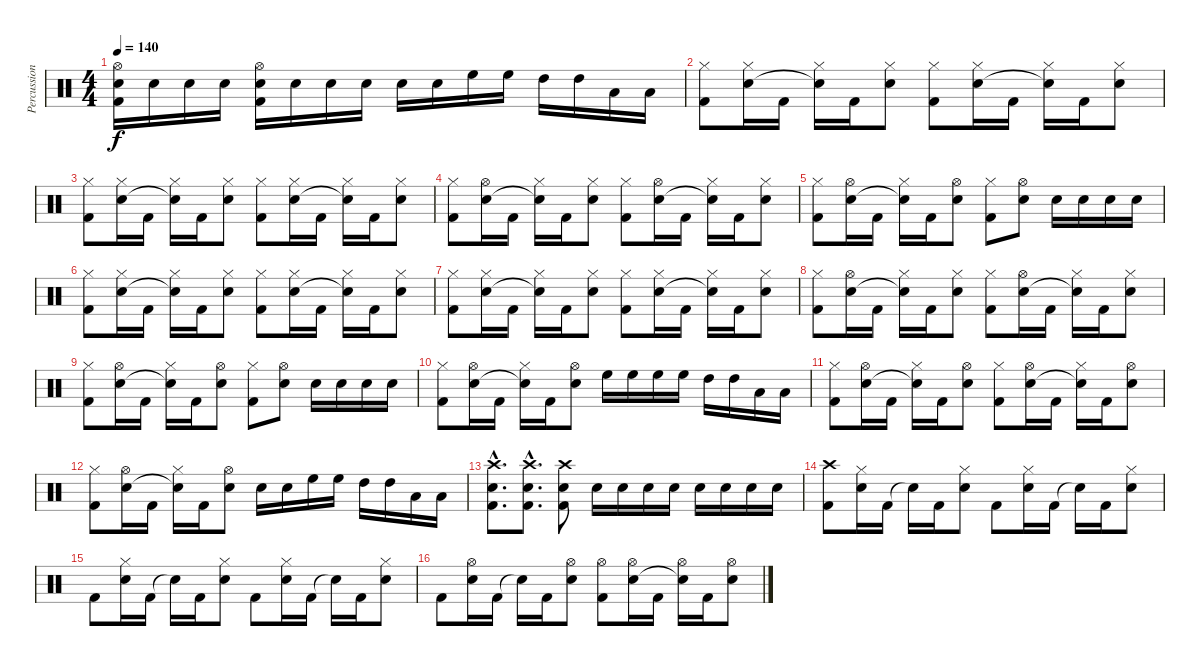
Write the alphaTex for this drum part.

\track ("Percussion" "Percussion") {instrument percussion}
\staff {score}
\articulation defaults
\ts (4 4)
\tempo 140
\clef neutral
\ks c
("Hi-Hat (open)" "Snare (hit) 2" "Kick (hit) 2").16{dy f} "Snare (hit) 2".16 "Snare (hit) 2".16 "Snare (hit) 2".16 ("Hi-Hat (open)" "Snare (hit) 2" "Kick (hit) 2").16 "Snare (hit) 2".16 "Snare (hit) 2".16 "Snare (hit) 2".16 "Snare (hit) 2".16 "Snare (hit) 2".16 "High Floor Tom (hit)".16 "High Floor Tom (hit)".16 "High Tom (hit)".16 "High Tom (hit)".16 "Low Tom (hit)".16 "Low Tom (hit)".16 |
("Hi-Hat (closed)" "Kick (hit) 2").8 ("Hi-Hat (closed)" "Snare (hit) 2").16 "Kick (hit) 2".16 ("Hi-Hat (closed)" "Snare (hit)"{t}).16 "Kick (hit) 2".16 ("Hi-Hat (closed)" "Snare (hit) 2").8 ("Hi-Hat (closed)" "Kick (hit) 2").8 ("Hi-Hat (closed)" "Snare (hit) 2").16 "Kick (hit) 2".16 ("Hi-Hat (closed)" "Snare (hit)"{t}).16 "Kick (hit) 2".16 ("Hi-Hat (closed)" "Snare (hit) 2").8 |
("Hi-Hat (closed)" "Kick (hit) 2").8 ("Hi-Hat (closed)" "Snare (hit) 2").16 "Kick (hit) 2".16 ("Hi-Hat (closed)" "Snare (hit)"{t}).16 "Kick (hit) 2".16 ("Hi-Hat (closed)" "Snare (hit) 2").8 ("Hi-Hat (closed)" "Kick (hit) 2").8 ("Hi-Hat (closed)" "Snare (hit) 2").16 "Kick (hit) 2".16 ("Hi-Hat (closed)" "Snare (hit)"{t}).16 "Kick (hit) 2".16 ("Hi-Hat (closed)" "Snare (hit) 2").8 |
("Hi-Hat (closed)" "Kick (hit) 2").8 ("Hi-Hat (open)" "Snare (hit) 2").16 "Kick (hit) 2".16 ("Hi-Hat (closed)" "Snare (hit)"{t}).16 "Kick (hit) 2".16 ("Hi-Hat (closed)" "Snare (hit) 2").8 ("Hi-Hat (closed)" "Kick (hit) 2").8 ("Hi-Hat (open)" "Snare (hit) 2").16 "Kick (hit) 2".16 ("Hi-Hat (closed)" "Snare (hit)"{t}).16 "Kick (hit) 2".16 ("Hi-Hat (closed)" "Snare (hit) 2").8 |
("Hi-Hat (closed)" "Kick (hit) 2").8 ("Hi-Hat (open)" "Snare (hit) 2").16 "Kick (hit) 2".16 ("Hi-Hat (closed)" "Snare (hit)"{t}).16 "Kick (hit) 2".16 ("Hi-Hat (open)" "Snare (hit) 2").8 ("Hi-Hat (closed)" "Kick (hit) 2").8 ("Hi-Hat (open)" "Snare (hit) 2").8 "Snare (hit) 2".16 "Snare (hit) 2".16 "Snare (hit) 2".16 "Snare (hit) 2".16 |
("Hi-Hat (closed)" "Kick (hit) 2").8 ("Hi-Hat (closed)" "Snare (hit) 2").16 "Kick (hit) 2".16 ("Hi-Hat (closed)" "Snare (hit)"{t}).16 "Kick (hit) 2".16 ("Hi-Hat (closed)" "Snare (hit) 2").8 ("Hi-Hat (closed)" "Kick (hit) 2").8 ("Hi-Hat (closed)" "Snare (hit) 2").16 "Kick (hit) 2".16 ("Hi-Hat (closed)" "Snare (hit)"{t}).16 "Kick (hit) 2".16 ("Hi-Hat (closed)" "Snare (hit) 2").8 |
("Hi-Hat (closed)" "Kick (hit) 2").8 ("Hi-Hat (closed)" "Snare (hit) 2").16 "Kick (hit) 2".16 ("Hi-Hat (closed)" "Snare (hit)"{t}).16 "Kick (hit) 2".16 ("Hi-Hat (closed)" "Snare (hit) 2").8 ("Hi-Hat (closed)" "Kick (hit) 2").8 ("Hi-Hat (closed)" "Snare (hit) 2").16 "Kick (hit) 2".16 ("Hi-Hat (closed)" "Snare (hit)"{t}).16 "Kick (hit) 2".16 ("Hi-Hat (closed)" "Snare (hit) 2").8 |
("Hi-Hat (closed)" "Kick (hit) 2").8 ("Hi-Hat (open)" "Snare (hit) 2").16 "Kick (hit) 2".16 ("Hi-Hat (closed)" "Snare (hit)"{t}).16 "Kick (hit) 2".16 ("Hi-Hat (closed)" "Snare (hit) 2").8 ("Hi-Hat (closed)" "Kick (hit) 2").8 ("Hi-Hat (open)" "Snare (hit) 2").16 "Kick (hit) 2".16 ("Hi-Hat (closed)" "Snare (hit)"{t}).16 "Kick (hit) 2".16 ("Hi-Hat (closed)" "Snare (hit) 2").8 |
("Hi-Hat (closed)" "Kick (hit) 2").8 ("Hi-Hat (open)" "Snare (hit) 2").16 "Kick (hit) 2".16 ("Hi-Hat (closed)" "Snare (hit)"{t}).16 "Kick (hit) 2".16 ("Hi-Hat (open)" "Snare (hit) 2").8 ("Hi-Hat (closed)" "Kick (hit) 2").8 ("Hi-Hat (open)" "Snare (hit) 2").8 "Snare (hit) 2".16 "Snare (hit) 2".16 "Snare (hit) 2".16 "Snare (hit) 2".16 |
("Hi-Hat (closed)" "Kick (hit) 2").8 ("Hi-Hat (open)" "Snare (hit) 2").16 "Kick (hit) 2".16 ("Hi-Hat (closed)" "Snare (hit)"{t}).16 "Kick (hit) 2".16 ("Hi-Hat (open)" "Snare (hit) 2").8 "High Floor Tom (hit)".16 "High Floor Tom (hit)".16 "High Floor Tom (hit)".16 "High Floor Tom (hit)".16 "High Tom (hit)".16 "High Tom (hit)".16 "Low Tom (hit)".16 "Low Tom (hit)".16 |
("Hi-Hat (closed)" "Kick (hit) 2").8 ("Hi-Hat (open)" "Snare (hit) 2").16 "Kick (hit) 2".16 ("Hi-Hat (closed)" "Snare (hit)"{t}).16 "Kick (hit) 2".16 ("Hi-Hat (open)" "Snare (hit) 2").8 ("Hi-Hat (closed)" "Kick (hit) 2").8 ("Hi-Hat (open)" "Snare (hit) 2").16 "Kick (hit) 2".16 ("Hi-Hat (closed)" "Snare (hit)"{t}).16 "Kick (hit) 2".16 ("Hi-Hat (open)" "Snare (hit) 2").8 |
("Hi-Hat (closed)" "Kick (hit) 2").8 ("Hi-Hat (open)" "Snare (hit) 2").16 "Kick (hit) 2".16 ("Hi-Hat (closed)" "Snare (hit)"{t}).16 "Kick (hit) 2".16 ("Hi-Hat (open)" "Snare (hit) 2").8 "Snare (hit) 2".16 "Snare (hit) 2".16 "High Floor Tom (hit)".16 "High Floor Tom (hit)".16 "High Tom (hit)".16 "High Tom (hit)".16 "Low Tom (hit)".16 "Low Tom (hit)".16 |
("Crash high (hit)"{hac} "Snare (hit) 2"{hac} "Kick (hit) 2"{hac}).8{d} ("Crash high (hit)"{hac} "Snare (hit) 2"{hac} "Kick (hit) 2"{hac}).8{d} ("Crash high (hit)" "Snare (hit) 2" "Kick (hit) 2").8 "Snare (hit) 2".16 "Snare (hit) 2".16 "Snare (hit) 2".16 "Snare (hit) 2".16 "Snare (hit) 2".16 "Snare (hit) 2".16 "Snare (hit) 2".16 "Snare (hit) 2".16 |
("Crash high (hit)" "Kick (hit) 2").8 ("Hi-Hat (closed)" "Snare (hit) 2").16 "Kick (hit) 2".16 "Snare (hit)"{t}.16 "Kick (hit) 2".16 ("Hi-Hat (closed)" "Snare (hit) 2").8 "Kick (hit) 2".8 ("Hi-Hat (closed)" "Snare (hit) 2").16 "Kick (hit) 2".16 "Snare (hit)"{t}.16 "Kick (hit) 2".16 ("Hi-Hat (closed)" "Snare (hit) 2").8 |
"Kick (hit) 2".8 ("Hi-Hat (closed)" "Snare (hit) 2").16 "Kick (hit) 2".16 "Snare (hit)"{t}.16 "Kick (hit) 2".16 ("Hi-Hat (closed)" "Snare (hit) 2").8 "Kick (hit) 2".8 ("Hi-Hat (closed)" "Snare (hit) 2").16 "Kick (hit) 2".16 "Snare (hit)"{t}.16 "Kick (hit) 2".16 ("Hi-Hat (closed)" "Snare (hit) 2").8 |
"Kick (hit) 2".8 ("Hi-Hat (open)" "Snare (hit) 2").16 "Kick (hit) 2".16 "Snare (hit)"{t}.16 "Kick (hit) 2".16 ("Hi-Hat (open)" "Snare (hit) 2").8 ("Hi-Hat (open)" "Kick (hit) 2").8 ("Hi-Hat (open)" "Snare (hit) 2").16 "Kick (hit) 2".16 ("Hi-Hat (open)" "Snare (hit)"{t}).16 "Kick (hit) 2".16 ("Hi-Hat (open)" "Snare (hit) 2").8
